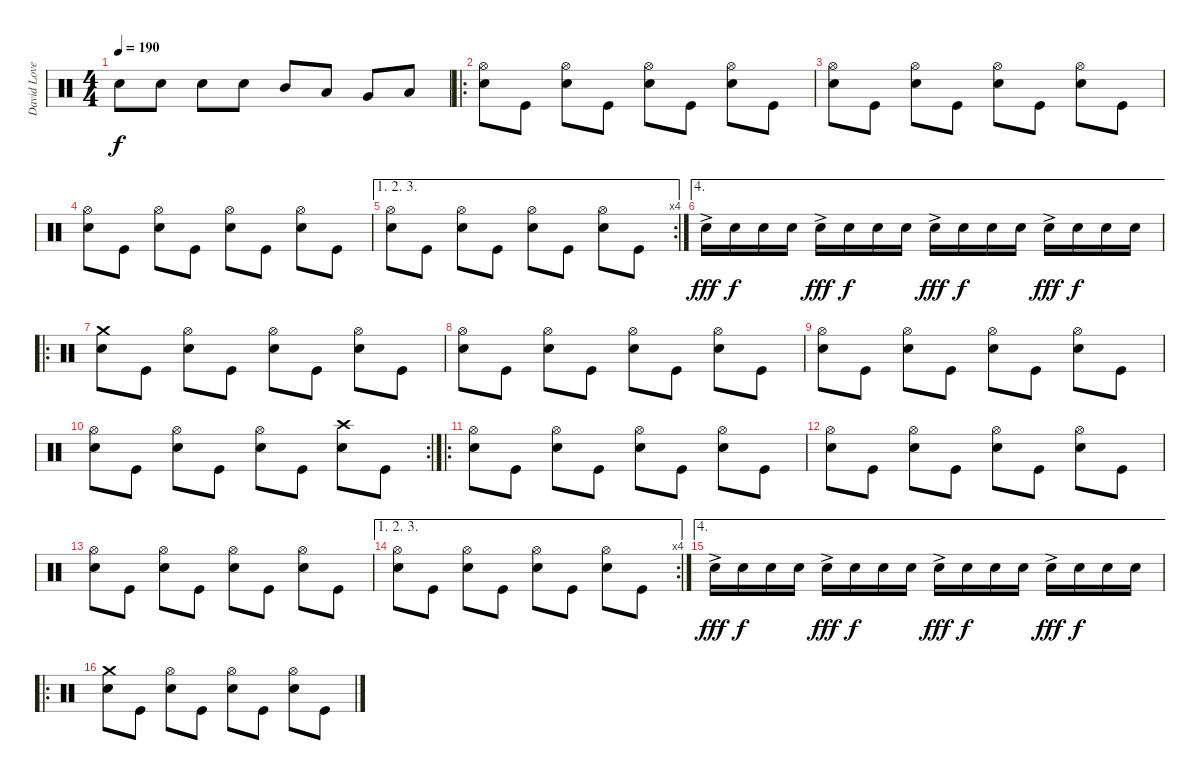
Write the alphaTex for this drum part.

\track ("David Lovering" "David Love") {instrument percussion}
\staff {score}
\articulation defaults
\ts (4 4)
\tempo 190
\clef neutral
\ks c "Electric Snare (hit)".8{dy f} "Electric Snare (hit)".8 "Electric Snare (hit)".8 "Electric Snare (hit)".8 "Mid Tom (hit)".8 "Low Tom (hit)".8 "Very Low Tom (hit)".8 "Low Floor Tom (hit)".8
|
\ro
("Electric Snare (hit)" "Hi-Hat (open)").8 "Kick (hit)".8 ("Electric Snare (hit)" "Hi-Hat (open)").8 "Kick (hit)".8 ("Electric Snare (hit)" "Hi-Hat (open)").8 "Kick (hit)".8 ("Electric Snare (hit)" "Hi-Hat (open)").8 "Kick (hit)".8 |
("Electric Snare (hit)" "Hi-Hat (open)").8 "Kick (hit)".8 ("Electric Snare (hit)" "Hi-Hat (open)").8 "Kick (hit)".8 ("Electric Snare (hit)" "Hi-Hat (open)").8 "Kick (hit)".8 ("Electric Snare (hit)" "Hi-Hat (open)").8 "Kick (hit)".8 |
("Electric Snare (hit)" "Hi-Hat (open)").8 "Kick (hit)".8 ("Electric Snare (hit)" "Hi-Hat (open)").8 "Kick (hit)".8 ("Electric Snare (hit)" "Hi-Hat (open)").8 "Kick (hit)".8 ("Electric Snare (hit)" "Hi-Hat (open)").8 "Kick (hit)".8 |
\ae (1 2 3)
\rc 4
("Electric Snare (hit)" "Hi-Hat (open)").8 "Kick (hit)".8 ("Electric Snare (hit)" "Hi-Hat (open)").8 "Kick (hit)".8 ("Electric Snare (hit)" "Hi-Hat (open)").8 "Kick (hit)".8 ("Electric Snare (hit)" "Hi-Hat (open)").8 "Kick (hit)".8 |
\ae 4 "Electric Snare (hit)"{ac}.16{dy fff} "Electric Snare (hit)".16{dy f} "Electric Snare (hit)".16 "Electric Snare (hit)".16 "Electric Snare (hit)"{ac}.16{dy fff} "Electric Snare (hit)".16{dy f} "Electric Snare (hit)".16 "Electric Snare (hit)".16 "Electric Snare (hit)"{ac}.16{dy fff} "Electric Snare (hit)".16{dy f} "Electric Snare (hit)".16 "Electric Snare (hit)".16 "Electric Snare (hit)"{ac}.16{dy fff} "Electric Snare (hit)".16{dy f} "Electric Snare (hit)".16 "Electric Snare (hit)".16
|
\ro
("Electric Snare (hit)" "Crash medium (hit)").8 "Kick (hit)".8 ("Electric Snare (hit)" "Hi-Hat (open)").8 "Kick (hit)".8 ("Electric Snare (hit)" "Hi-Hat (open)").8 "Kick (hit)".8 ("Electric Snare (hit)" "Hi-Hat (open)").8 "Kick (hit)".8 |
("Electric Snare (hit)" "Hi-Hat (open)").8 "Kick (hit)".8 ("Electric Snare (hit)" "Hi-Hat (open)").8 "Kick (hit)".8 ("Electric Snare (hit)" "Hi-Hat (open)").8 "Kick (hit)".8 ("Electric Snare (hit)" "Hi-Hat (open)").8 "Kick (hit)".8 |
("Electric Snare (hit)" "Hi-Hat (open)").8 "Kick (hit)".8 ("Electric Snare (hit)" "Hi-Hat (open)").8 "Kick (hit)".8 ("Electric Snare (hit)" "Hi-Hat (open)").8 "Kick (hit)".8 ("Electric Snare (hit)" "Hi-Hat (open)").8 "Kick (hit)".8 |
\rc 2
("Electric Snare (hit)" "Hi-Hat (open)").8 "Kick (hit)".8 ("Electric Snare (hit)" "Hi-Hat (open)").8 "Kick (hit)".8 ("Electric Snare (hit)" "Hi-Hat (open)").8 "Kick (hit)".8 ("Electric Snare (hit)" "Crash high (hit)").8 "Kick (hit)".8 |
\ro
("Electric Snare (hit)" "Hi-Hat (open)").8 "Kick (hit)".8 ("Electric Snare (hit)" "Hi-Hat (open)").8 "Kick (hit)".8 ("Electric Snare (hit)" "Hi-Hat (open)").8 "Kick (hit)".8 ("Electric Snare (hit)" "Hi-Hat (open)").8 "Kick (hit)".8 |
("Electric Snare (hit)" "Hi-Hat (open)").8 "Kick (hit)".8 ("Electric Snare (hit)" "Hi-Hat (open)").8 "Kick (hit)".8 ("Electric Snare (hit)" "Hi-Hat (open)").8 "Kick (hit)".8 ("Electric Snare (hit)" "Hi-Hat (open)").8 "Kick (hit)".8 |
("Electric Snare (hit)" "Hi-Hat (open)").8 "Kick (hit)".8 ("Electric Snare (hit)" "Hi-Hat (open)").8 "Kick (hit)".8 ("Electric Snare (hit)" "Hi-Hat (open)").8 "Kick (hit)".8 ("Electric Snare (hit)" "Hi-Hat (open)").8 "Kick (hit)".8 |
\ae (1 2 3)
\rc 4
("Electric Snare (hit)" "Hi-Hat (open)").8 "Kick (hit)".8 ("Electric Snare (hit)" "Hi-Hat (open)").8 "Kick (hit)".8 ("Electric Snare (hit)" "Hi-Hat (open)").8 "Kick (hit)".8 ("Electric Snare (hit)" "Hi-Hat (open)").8 "Kick (hit)".8 |
\ae 4 "Electric Snare (hit)"{ac}.16{dy fff} "Electric Snare (hit)".16{dy f} "Electric Snare (hit)".16 "Electric Snare (hit)".16 "Electric Snare (hit)"{ac}.16{dy fff} "Electric Snare (hit)".16{dy f} "Electric Snare (hit)".16 "Electric Snare (hit)".16 "Electric Snare (hit)"{ac}.16{dy fff} "Electric Snare (hit)".16{dy f} "Electric Snare (hit)".16 "Electric Snare (hit)".16 "Electric Snare (hit)"{ac}.16{dy fff} "Electric Snare (hit)".16{dy f} "Electric Snare (hit)".16 "Electric Snare (hit)".16
|
\ro
("Electric Snare (hit)" "Crash medium (hit)").8 "Kick (hit)".8 ("Electric Snare (hit)" "Hi-Hat (open)").8 "Kick (hit)".8 ("Electric Snare (hit)" "Hi-Hat (open)").8 "Kick (hit)".8 ("Electric Snare (hit)" "Hi-Hat (open)").8 "Kick (hit)".8
